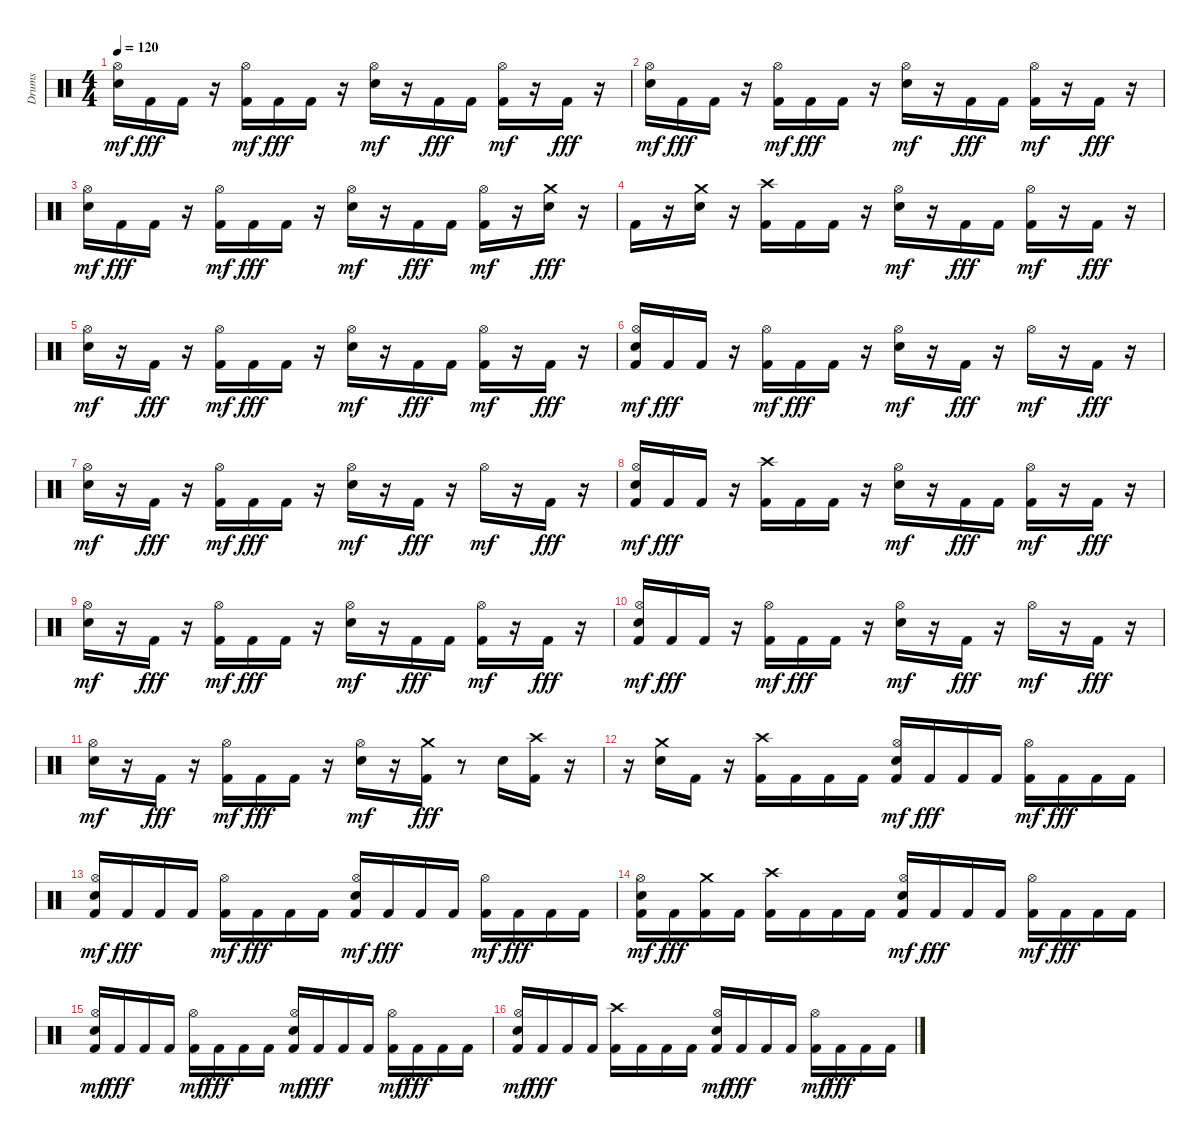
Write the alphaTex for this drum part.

\track ("Drums" "Drums") {instrument percussion}
\staff {score}
\articulation defaults
\ts (4 4)
\tempo 120
\clef neutral
\ks c
("Electric Snare (hit)" "Hi-Hat (open)").16{dy mf} "Kick (hit) 2".16{dy fff} "Kick (hit) 2".16 r.16 ("Kick (hit) 2" "Hi-Hat (open)").16{dy mf} "Kick (hit) 2".16{dy fff} "Kick (hit) 2".16 r.16 ("Electric Snare (hit)" "Hi-Hat (open)").16{dy mf} r.16 "Kick (hit) 2".16{dy fff} "Kick (hit) 2".16 ("Kick (hit) 2" "Hi-Hat (open)").16{dy mf} r.16 "Kick (hit) 2".16{dy fff} r.16 |
("Electric Snare (hit)" "Hi-Hat (open)").16{dy mf} "Kick (hit) 2".16{dy fff} "Kick (hit) 2".16 r.16 ("Kick (hit) 2" "Hi-Hat (open)").16{dy mf} "Kick (hit) 2".16{dy fff} "Kick (hit) 2".16 r.16 ("Electric Snare (hit)" "Hi-Hat (open)").16{dy mf} r.16 "Kick (hit) 2".16{dy fff} "Kick (hit) 2".16 ("Kick (hit) 2" "Hi-Hat (open)").16{dy mf} r.16 "Kick (hit) 2".16{dy fff} r.16 |
("Electric Snare (hit)" "Hi-Hat (open)").16{dy mf} "Kick (hit) 2".16{dy fff} "Kick (hit) 2".16 r.16 ("Kick (hit) 2" "Hi-Hat (open)").16{dy mf} "Kick (hit) 2".16{dy fff} "Kick (hit) 2".16 r.16 ("Electric Snare (hit)" "Hi-Hat (open)").16{dy mf} r.16 "Kick (hit) 2".16{dy fff} "Kick (hit) 2".16 ("Kick (hit) 2" "Hi-Hat (open)").16{dy mf} r.16 ("Electric Snare (hit)" "Crash medium (hit)").16{dy fff} r.16 |
"Kick (hit) 2".16 r.16 ("Electric Snare (hit)" "Crash medium (hit)").16 r.16 ("Kick (hit) 2" "Crash high (hit)").16 "Kick (hit) 2".16 "Kick (hit) 2".16 r.16 ("Electric Snare (hit)" "Hi-Hat (open)").16{dy mf} r.16 "Kick (hit) 2".16{dy fff} "Kick (hit) 2".16 ("Kick (hit) 2" "Hi-Hat (open)").16{dy mf} r.16 "Kick (hit) 2".16{dy fff} r.16 |
("Electric Snare (hit)" "Hi-Hat (open)").16{dy mf} r.16 "Kick (hit) 2".16{dy fff} r.16 ("Kick (hit) 2" "Hi-Hat (open)").16{dy mf} "Kick (hit) 2".16{dy fff} "Kick (hit) 2".16 r.16 ("Electric Snare (hit)" "Hi-Hat (open)").16{dy mf} r.16 "Kick (hit) 2".16{dy fff} "Kick (hit) 2".16 ("Kick (hit) 2" "Hi-Hat (open)").16{dy mf} r.16 "Kick (hit) 2".16{dy fff} r.16 |
("Electric Snare (hit)" "Kick (hit) 2" "Hi-Hat (open)").16{dy mf} "Kick (hit) 2".16{dy fff} "Kick (hit) 2".16 r.16 ("Kick (hit) 2" "Hi-Hat (open)").16{dy mf} "Kick (hit) 2".16{dy fff} "Kick (hit) 2".16 r.16 ("Electric Snare (hit)" "Hi-Hat (open)").16{dy mf} r.16 "Kick (hit) 2".16{dy fff} r.16 "Hi-Hat (open)".16{dy mf} r.16 "Kick (hit) 2".16{dy fff} r.16 |
("Electric Snare (hit)" "Hi-Hat (open)").16{dy mf} r.16 "Kick (hit) 2".16{dy fff} r.16 ("Kick (hit) 2" "Hi-Hat (open)").16{dy mf} "Kick (hit) 2".16{dy fff} "Kick (hit) 2".16 r.16 ("Electric Snare (hit)" "Hi-Hat (open)").16{dy mf} r.16 "Kick (hit) 2".16{dy fff} r.16 "Hi-Hat (open)".16{dy mf} r.16 "Kick (hit) 2".16{dy fff} r.16 |
("Electric Snare (hit)" "Kick (hit) 2" "Hi-Hat (open)").16{dy mf} "Kick (hit) 2".16{dy fff} "Kick (hit) 2".16 r.16 ("Kick (hit) 2" "Crash high (hit)").16 "Kick (hit) 2".16 "Kick (hit) 2".16 r.16 ("Electric Snare (hit)" "Hi-Hat (open)").16{dy mf} r.16 "Kick (hit) 2".16{dy fff} "Kick (hit) 2".16 ("Kick (hit) 2" "Hi-Hat (open)").16{dy mf} r.16 "Kick (hit) 2".16{dy fff} r.16 |
("Electric Snare (hit)" "Hi-Hat (open)").16{dy mf} r.16 "Kick (hit) 2".16{dy fff} r.16 ("Kick (hit) 2" "Hi-Hat (open)").16{dy mf} "Kick (hit) 2".16{dy fff} "Kick (hit) 2".16 r.16 ("Electric Snare (hit)" "Hi-Hat (open)").16{dy mf} r.16 "Kick (hit) 2".16{dy fff} "Kick (hit) 2".16 ("Kick (hit) 2" "Hi-Hat (open)").16{dy mf} r.16 "Kick (hit) 2".16{dy fff} r.16 |
("Electric Snare (hit)" "Kick (hit) 2" "Hi-Hat (open)").16{dy mf} "Kick (hit) 2".16{dy fff} "Kick (hit) 2".16 r.16 ("Kick (hit) 2" "Hi-Hat (open)").16{dy mf} "Kick (hit) 2".16{dy fff} "Kick (hit) 2".16 r.16 ("Electric Snare (hit)" "Hi-Hat (open)").16{dy mf} r.16 "Kick (hit) 2".16{dy fff} r.16 "Hi-Hat (open)".16{dy mf} r.16 "Kick (hit) 2".16{dy fff} r.16 |
("Electric Snare (hit)" "Hi-Hat (open)").16{dy mf} r.16 "Kick (hit) 2".16{dy fff} r.16 ("Kick (hit) 2" "Hi-Hat (open)").16{dy mf} "Kick (hit) 2".16{dy fff} "Kick (hit) 2".16 r.16 ("Electric Snare (hit)" "Hi-Hat (open)").16{dy mf} r.16 ("Kick (hit) 2" "Crash medium (hit)").16{dy fff} r.8 "Electric Snare (hit)".16 ("Kick (hit) 2" "Crash high (hit)").16 r.16 |
r.16 ("Electric Snare (hit)" "Crash medium (hit)").16 "Kick (hit) 2".16 r.16 ("Kick (hit) 2" "Crash high (hit)").16{volume 13} "Kick (hit) 2".16 "Kick (hit) 2".16 "Kick (hit) 2".16 ("Electric Snare (hit)" "Kick (hit) 2" "Hi-Hat (open)").16{dy mf} "Kick (hit) 2".16{dy fff} "Kick (hit) 2".16 "Kick (hit) 2".16 ("Kick (hit) 2" "Hi-Hat (open)").16{dy mf} "Kick (hit) 2".16{dy fff} "Kick (hit) 2".16 "Kick (hit) 2".16 |
("Electric Snare (hit)" "Kick (hit) 2" "Hi-Hat (open)").16{dy mf} "Kick (hit) 2".16{dy fff} "Kick (hit) 2".16 "Kick (hit) 2".16 ("Kick (hit) 2" "Hi-Hat (open)").16{dy mf} "Kick (hit) 2".16{dy fff} "Kick (hit) 2".16 "Kick (hit) 2".16 ("Electric Snare (hit)" "Kick (hit) 2" "Hi-Hat (open)").16{dy mf} "Kick (hit) 2".16{dy fff} "Kick (hit) 2".16 "Kick (hit) 2".16 ("Kick (hit) 2" "Hi-Hat (open)").16{dy mf} "Kick (hit) 2".16{dy fff} "Kick (hit) 2".16 "Kick (hit) 2".16 |
("Electric Snare (hit)" "Kick (hit) 2" "Hi-Hat (open)").16{dy mf} "Kick (hit) 2".16{dy fff} ("Kick (hit) 2" "Crash medium (hit)").16 "Kick (hit) 2".16 ("Kick (hit) 2" "Crash high (hit)").16 "Kick (hit) 2".16 "Kick (hit) 2".16 "Kick (hit) 2".16 ("Electric Snare (hit)" "Kick (hit) 2" "Hi-Hat (open)").16{dy mf} "Kick (hit) 2".16{dy fff} "Kick (hit) 2".16 "Kick (hit) 2".16 ("Kick (hit) 2" "Hi-Hat (open)").16{dy mf} "Kick (hit) 2".16{dy fff} "Kick (hit) 2".16 "Kick (hit) 2".16 |
("Electric Snare (hit)" "Kick (hit) 2" "Hi-Hat (open)").16{dy mf} "Kick (hit) 2".16{dy fff} "Kick (hit) 2".16 "Kick (hit) 2".16 ("Kick (hit) 2" "Hi-Hat (open)").16{dy mf} "Kick (hit) 2".16{dy fff} "Kick (hit) 2".16 "Kick (hit) 2".16 ("Electric Snare (hit)" "Kick (hit) 2" "Hi-Hat (open)").16{dy mf} "Kick (hit) 2".16{dy fff} "Kick (hit) 2".16 "Kick (hit) 2".16 ("Kick (hit) 2" "Hi-Hat (open)").16{dy mf} "Kick (hit) 2".16{dy fff} "Kick (hit) 2".16 "Kick (hit) 2".16 |
("Electric Snare (hit)" "Kick (hit) 2" "Hi-Hat (open)").16{dy mf} "Kick (hit) 2".16{dy fff} "Kick (hit) 2".16 "Kick (hit) 2".16 ("Kick (hit) 2" "Crash high (hit)").16{volume 12} "Kick (hit) 2".16{volume 12} "Kick (hit) 2".16{volume 12} "Kick (hit) 2".16 ("Electric Snare (hit)" "Kick (hit) 2" "Hi-Hat (open)").16{dy mf volume 12} "Kick (hit) 2".16{dy fff} "Kick (hit) 2".16{volume 12} "Kick (hit) 2".16{volume 12} ("Kick (hit) 2" "Hi-Hat (open)").16{dy mf} "Kick (hit) 2".16{dy fff volume 12} "Kick (hit) 2".16{volume 12} "Kick (hit) 2".16
